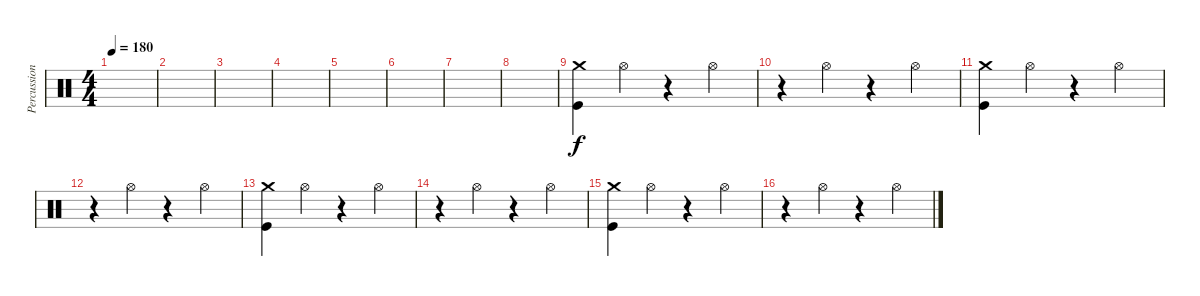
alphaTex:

\track ("Percussion" "Percussion") {instrument percussion}
\staff {score}
\articulation defaults
\ts (4 4)
\tempo 180
\clef neutral
\ks c
|
|
|
|
|
|
|
|
("Crash medium (hit)" "Kick (hit)").4 "Hi-Hat (open)".4 r.4 "Hi-Hat (open)".4 |
r.4 "Hi-Hat (open)".4 r.4 "Hi-Hat (open)".4 |
("Crash medium (hit)" "Kick (hit)").4 "Hi-Hat (open)".4 r.4 "Hi-Hat (open)".4 |
r.4 "Hi-Hat (open)".4 r.4 "Hi-Hat (open)".4 |
("Crash medium (hit)" "Kick (hit)").4 "Hi-Hat (open)".4 r.4 "Hi-Hat (open)".4 |
r.4 "Hi-Hat (open)".4 r.4 "Hi-Hat (open)".4 |
("Crash medium (hit)" "Kick (hit)").4 "Hi-Hat (open)".4 r.4 "Hi-Hat (open)".4 |
r.4 "Hi-Hat (open)".4 r.4 "Hi-Hat (open)".4
